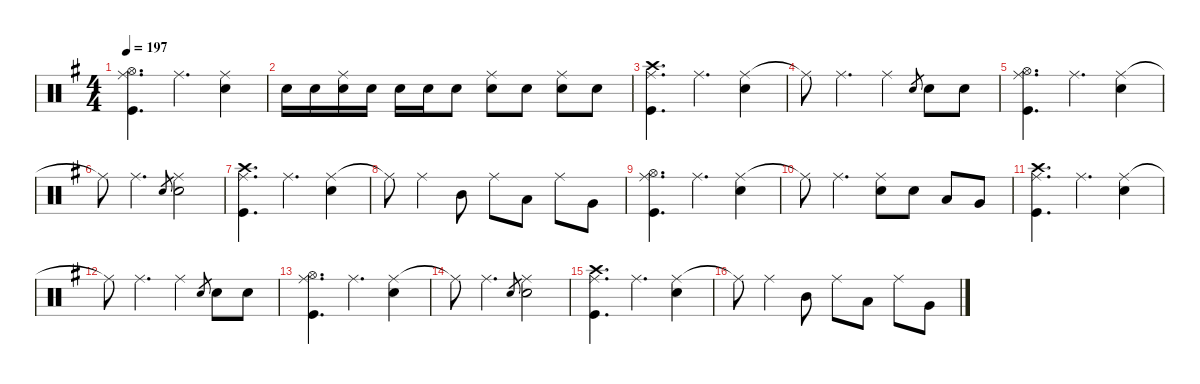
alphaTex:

\defaultSystemsLayout 4
\hideDynamics
\bracketExtendMode nobrackets
\singleTrackTrackNamePolicy hidden
\multiTrackTrackNamePolicy hidden
\firstSystemTrackNameMode fullname
\firstSystemTrackNameOrientation horizontal
\otherSystemsTrackNameOrientation horizontal
\track ("Drums" "drm.") {defaultSystemsLayout 4 instrument percussion}
\staff {score}
\articulation defaults
\ts (4 4)
\tempo 197
\clef neutral
\ks eminor
("Hi-Hat (open)"{acc forcenatural} "Ride (middle)"{acc forcenatural} "Kick (hit)"{acc forcenatural}).4{d dy f beam Down} "Ride (middle)"{acc forcenatural}.4{d beam Down} ("Ride (middle)"{acc forcenatural} "Snare (hit) 2"{acc forcenatural}).4{beam Down} |
"Snare (hit) 2"{acc forcenatural}.16{dy p beam Down} "Snare (hit) 2"{acc forcenatural}.16{beam Down} ("Ride (middle)"{acc forcenatural} "Snare (hit) 2"{acc forcenatural}).16{dy f beam Down} "Snare (hit) 2"{acc forcenatural}.16{dy mp beam Down} "Snare (hit) 2"{acc forcenatural}.16{beam Down} "Snare (hit) 2"{acc forcenatural}.16{beam Down} "Snare (hit) 2"{acc forcenatural}.8{dy mf beam Down} ("Ride (middle)"{acc forcenatural} "Snare (hit) 2"{acc forcenatural}).8{dy f beam Down} "Snare (hit) 2"{acc forcenatural}.8{beam Down} ("Ride (middle)"{acc forcenatural} "Snare (hit) 2"{acc forcenatural}).8{beam Down} "Snare (hit) 2"{acc forcenatural}.8{beam Down} |
("Crash high (hit)"{acc forcenatural} "Ride (middle)"{acc forcenatural} "Kick (hit)"{acc forcenatural}).4{d beam Down} "Ride (middle)"{acc forcenatural}.4{d beam Down} ("Ride (middle)"{acc forcenatural} "Snare (hit) 2"{acc forcenatural}).4{beam Down} |
"Ride (middle)"{t acc forcenatural}.8{beam Down} "Ride (middle)"{acc forcenatural}.4{d beam Down} "Ride (middle)"{acc forcenatural}.4{beam Down} "Electric Snare (hit)"{acc forcenatural}.8{gr dy p beam Up} "Snare (hit) 2"{acc forcenatural}.8{dy mp beam Down} "Snare (hit) 2"{acc forcenatural}.8{dy mf beam Down} |
("Hi-Hat (open)"{acc forcenatural} "Ride (middle)"{acc forcenatural} "Kick (hit)"{acc forcenatural}).4{d dy f beam Down} "Ride (middle)"{acc forcenatural}.4{d beam Down} ("Ride (middle)"{acc forcenatural} "Snare (hit) 2"{acc forcenatural}).4{beam Down} |
"Ride (middle)"{t acc forcenatural}.8{beam Down} "Ride (middle)"{acc forcenatural}.4{d beam Down} "Electric Snare (hit)"{acc forcenatural}.8{gr dy pp beam Up} ("Ride (middle)"{acc forcenatural} "Snare (hit) 2"{acc forcenatural}).2{dy f beam Down} |
("Crash high (hit)"{acc forcenatural} "Ride (middle)"{acc forcenatural} "Kick (hit)"{acc forcenatural}).4{d beam Down} "Ride (middle)"{acc forcenatural}.4{d beam Down} ("Ride (middle)"{acc forcenatural} "Snare (hit) 2"{acc forcenatural}).4{beam Down} |
"Ride (middle)"{t acc forcenatural}.8{beam Down} "Ride (middle)"{acc forcenatural}.4{beam Down} "Mid Tom (hit)"{acc forcenatural}.8{dy mp beam Down} "Ride (middle)"{acc forcenatural}.8{dy f beam Down} "Low Tom (hit)"{acc forcenatural}.8{dy mp beam Down} "Ride (middle)"{acc forcenatural}.8{dy f beam Down} "Very Low Tom (hit)"{acc forcenatural}.8{dy mp beam Down} |
("Hi-Hat (open)"{acc forcenatural} "Ride (middle)"{acc forcenatural} "Kick (hit)"{acc forcenatural}).4{d dy f beam Down} "Ride (middle)"{acc forcenatural}.4{d beam Down} ("Ride (middle)"{acc forcenatural} "Snare (hit) 2"{acc forcenatural}).4{beam Down} |
"Ride (middle)"{t acc forcenatural}.8{beam Down} "Ride (middle)"{acc forcenatural}.4{d beam Down} ("Ride (middle)"{acc forcenatural} "Snare (hit) 2"{acc forcenatural}).8{beam Down} "Snare (hit) 2"{acc forcenatural}.8{dy mf beam Down} "Low Tom (hit)"{acc forcenatural}.8{dy mp beam Up} "Very Low Tom (hit)"{acc forcenatural}.8{dy mf beam Up} |
("Crash high (hit)"{acc forcenatural} "Ride (middle)"{acc forcenatural} "Kick (hit)"{acc forcenatural}).4{d dy f beam Down} "Ride (middle)"{acc forcenatural}.4{d beam Down} ("Ride (middle)"{acc forcenatural} "Snare (hit) 2"{acc forcenatural}).4{beam Down} |
"Ride (middle)"{t acc forcenatural}.8{beam Down} "Ride (middle)"{acc forcenatural}.4{d beam Down} "Ride (middle)"{acc forcenatural}.4{beam Down} "Electric Snare (hit)"{acc forcenatural}.8{gr dy p beam Up} "Snare (hit) 2"{acc forcenatural}.8{dy mp beam Down} "Snare (hit) 2"{acc forcenatural}.8{dy mf beam Down} |
("Hi-Hat (open)"{acc forcenatural} "Ride (middle)"{acc forcenatural} "Kick (hit)"{acc forcenatural}).4{d dy f beam Down} "Ride (middle)"{acc forcenatural}.4{d beam Down} ("Ride (middle)"{acc forcenatural} "Snare (hit) 2"{acc forcenatural}).4{beam Down} |
"Ride (middle)"{t acc forcenatural}.8{beam Down} "Ride (middle)"{acc forcenatural}.4{d beam Down} "Electric Snare (hit)"{acc forcenatural}.8{gr dy pp beam Up} ("Ride (middle)"{acc forcenatural} "Snare (hit) 2"{acc forcenatural}).2{dy f beam Down} |
("Crash high (hit)"{acc forcenatural} "Ride (middle)"{acc forcenatural} "Kick (hit)"{acc forcenatural}).4{d beam Down} "Ride (middle)"{acc forcenatural}.4{d beam Down} ("Ride (middle)"{acc forcenatural} "Snare (hit) 2"{acc forcenatural}).4{beam Down} |
"Ride (middle)"{t acc forcenatural}.8{beam Down} "Ride (middle)"{acc forcenatural}.4{beam Down} "Mid Tom (hit)"{acc forcenatural}.8{dy mp beam Down} "Ride (middle)"{acc forcenatural}.8{dy f beam Down} "Low Tom (hit)"{acc forcenatural}.8{dy mp beam Down} "Ride (middle)"{acc forcenatural}.8{dy f beam Down} "Very Low Tom (hit)"{acc forcenatural}.8{dy mp beam Down}
